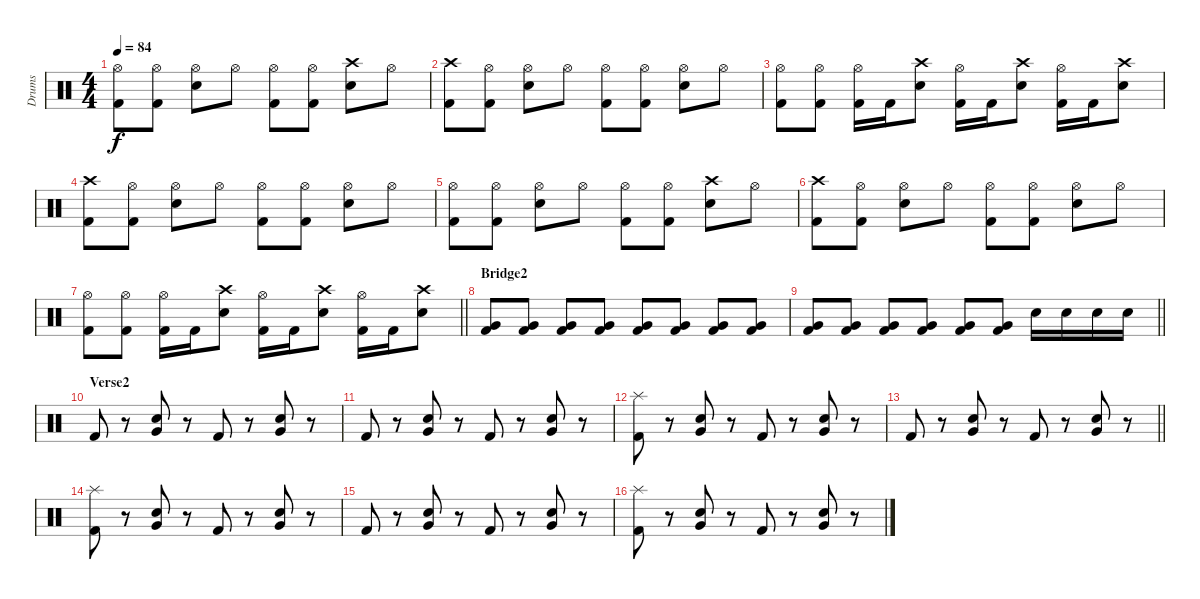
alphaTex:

\track ("Drums" "Drums") {instrument percussion}
\staff {score}
\articulation defaults
\ts (4 4)
\tempo 84
\clef neutral
\ks c
("Hi-Hat (open)" "Kick (hit) 2").8{dy f} ("Hi-Hat (open)" "Kick (hit) 2").8 ("Hi-Hat (open)" "Snare (hit) 2").8 "Hi-Hat (open)".8 ("Hi-Hat (open)" "Kick (hit) 2").8 ("Hi-Hat (open)" "Kick (hit) 2").8 ("Crash high (hit)" "Snare (hit) 2").8 "Hi-Hat (open)".8 |
("Crash high (hit)" "Kick (hit) 2").8 ("Hi-Hat (open)" "Kick (hit) 2").8 ("Hi-Hat (open)" "Snare (hit) 2").8 "Hi-Hat (open)".8 ("Hi-Hat (open)" "Kick (hit) 2").8 ("Hi-Hat (open)" "Kick (hit) 2").8 ("Hi-Hat (open)" "Snare (hit) 2").8 "Hi-Hat (open)".8 |
("Hi-Hat (open)" "Kick (hit) 2").8 ("Hi-Hat (open)" "Kick (hit) 2").8 ("Hi-Hat (open)" "Kick (hit) 2").16 "Kick (hit) 2".16 ("Crash high (hit)" "Snare (hit) 2").8 ("Hi-Hat (open)" "Kick (hit) 2").16 "Kick (hit) 2".16 ("Crash high (hit)" "Snare (hit) 2").8 ("Hi-Hat (open)" "Kick (hit) 2").16 "Kick (hit) 2".16 ("Crash high (hit)" "Snare (hit) 2").8 |
("Crash high (hit)" "Kick (hit) 2").8 ("Hi-Hat (open)" "Kick (hit) 2").8 ("Hi-Hat (open)" "Snare (hit) 2").8 "Hi-Hat (open)".8 ("Hi-Hat (open)" "Kick (hit) 2").8 ("Hi-Hat (open)" "Kick (hit) 2").8 ("Hi-Hat (open)" "Snare (hit) 2").8 "Hi-Hat (open)".8 |
("Hi-Hat (open)" "Kick (hit) 2").8 ("Hi-Hat (open)" "Kick (hit) 2").8 ("Hi-Hat (open)" "Snare (hit) 2").8 "Hi-Hat (open)".8 ("Hi-Hat (open)" "Kick (hit) 2").8 ("Hi-Hat (open)" "Kick (hit) 2").8 ("Crash high (hit)" "Snare (hit) 2").8 "Hi-Hat (open)".8 |
("Crash high (hit)" "Kick (hit) 2").8 ("Hi-Hat (open)" "Kick (hit) 2").8 ("Hi-Hat (open)" "Snare (hit) 2").8 "Hi-Hat (open)".8 ("Hi-Hat (open)" "Kick (hit) 2").8 ("Hi-Hat (open)" "Kick (hit) 2").8 ("Hi-Hat (open)" "Snare (hit) 2").8 "Hi-Hat (open)".8 |
\barLineRight lightlight
("Hi-Hat (open)" "Kick (hit) 2").8 ("Hi-Hat (open)" "Kick (hit) 2").8 ("Hi-Hat (open)" "Kick (hit) 2").16 "Kick (hit) 2".16 ("Crash high (hit)" "Snare (hit) 2").8 ("Hi-Hat (open)" "Kick (hit) 2").16 "Kick (hit) 2".16 ("Crash high (hit)" "Snare (hit) 2").8 ("Hi-Hat (open)" "Kick (hit) 2").16 "Kick (hit) 2".16 ("Crash high (hit)" "Snare (hit) 2").8 |
\section ("" "Bridge2")
("Very Low Tom (hit)" "Kick (hit) 2").8 ("Very Low Tom (hit)" "Kick (hit) 2").8 ("Very Low Tom (hit)" "Kick (hit) 2").8 ("Very Low Tom (hit)" "Kick (hit) 2").8 ("Very Low Tom (hit)" "Kick (hit) 2").8 ("Very Low Tom (hit)" "Kick (hit) 2").8 ("Very Low Tom (hit)" "Kick (hit) 2").8 ("Very Low Tom (hit)" "Kick (hit) 2").8 |
\barLineRight lightlight
("Very Low Tom (hit)" "Kick (hit) 2").8 ("Very Low Tom (hit)" "Kick (hit) 2").8 ("Very Low Tom (hit)" "Kick (hit) 2").8 ("Very Low Tom (hit)" "Kick (hit) 2").8 ("Very Low Tom (hit)" "Kick (hit) 2").8 ("Very Low Tom (hit)" "Kick (hit) 2").8 "Snare (hit) 2".16 "Snare (hit) 2".16 "Snare (hit) 2".16 "Snare (hit) 2".16 |
\section ("" "Verse2")
"Kick (hit) 2".8 r.8 ("Very Low Tom (hit)" "Snare (hit) 2").8 r.8 "Kick (hit) 2".8 r.8 ("Very Low Tom (hit)" "Snare (hit) 2").8 r.8 |
"Kick (hit) 2".8 r.8 ("Very Low Tom (hit)" "Snare (hit) 2").8 r.8 "Kick (hit) 2".8 r.8 ("Very Low Tom (hit)" "Snare (hit) 2").8 r.8 |
("Splash (hit)" "Kick (hit) 2").8 r.8 ("Very Low Tom (hit)" "Snare (hit) 2").8 r.8 "Kick (hit) 2".8 r.8 ("Very Low Tom (hit)" "Snare (hit) 2").8 r.8 |
\barLineRight lightlight "Kick (hit) 2".8
r.8 ("Very Low Tom (hit)" "Snare (hit) 2").8 r.8 "Kick (hit) 2".8 r.8 ("Very Low Tom (hit)" "Snare (hit) 2").8 r.8 |
("Splash (hit)" "Kick (hit) 2").8 r.8 ("Very Low Tom (hit)" "Snare (hit) 2").8 r.8 "Kick (hit) 2".8 r.8 ("Very Low Tom (hit)" "Snare (hit) 2").8 r.8 |
"Kick (hit) 2".8 r.8 ("Very Low Tom (hit)" "Snare (hit) 2").8 r.8 "Kick (hit) 2".8 r.8 ("Very Low Tom (hit)" "Snare (hit) 2").8 r.8 |
("Splash (hit)" "Kick (hit) 2").8 r.8 ("Very Low Tom (hit)" "Snare (hit) 2").8 r.8 "Kick (hit) 2".8 r.8 ("Very Low Tom (hit)" "Snare (hit) 2").8 r.8
